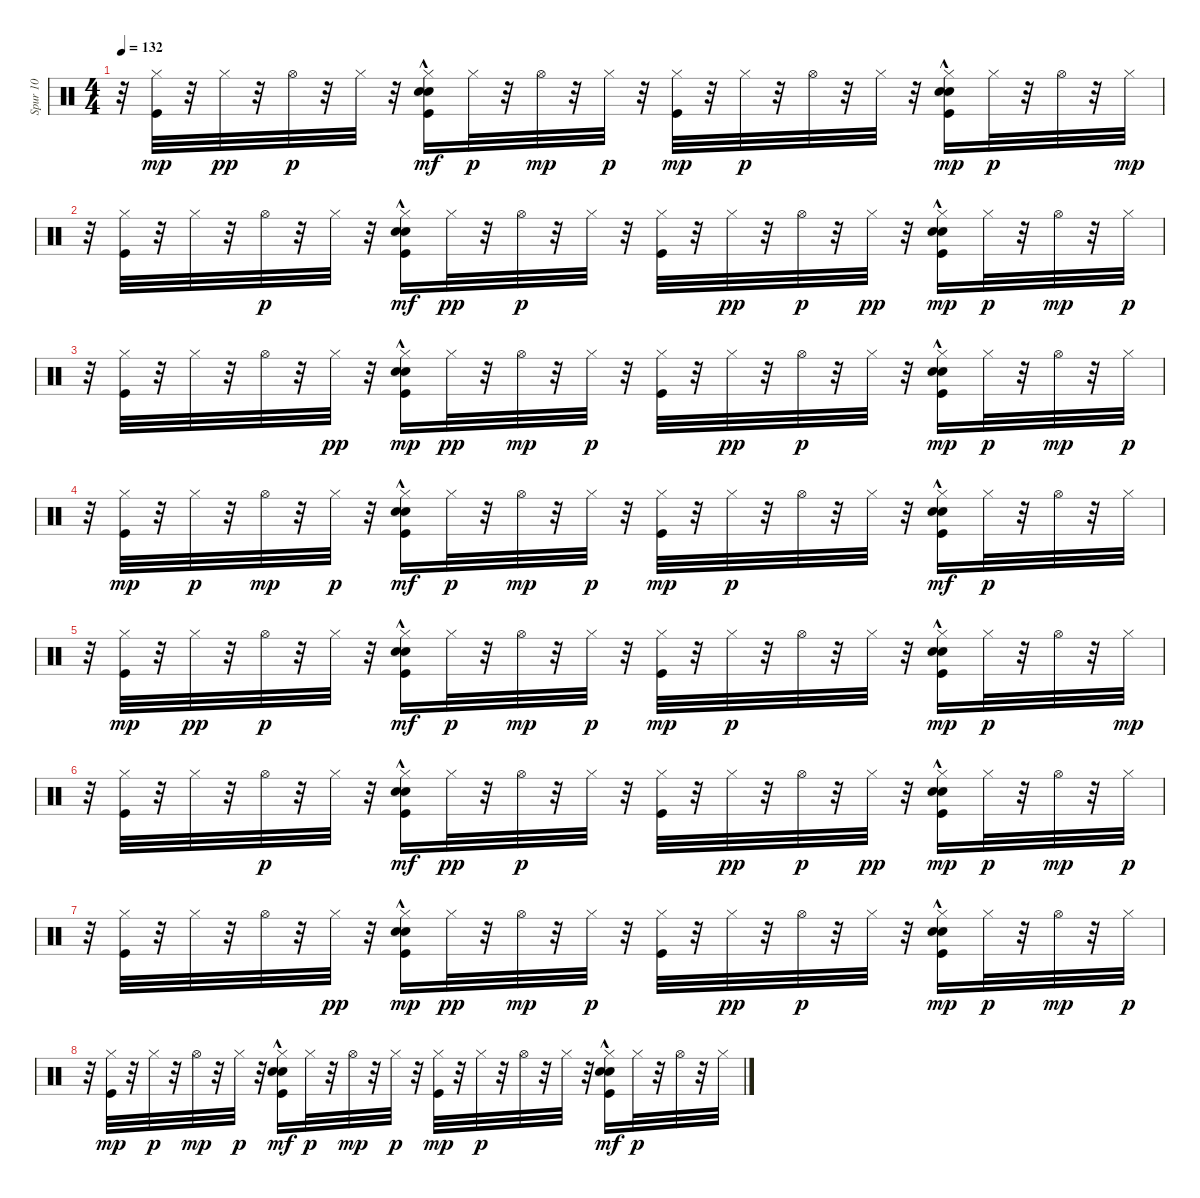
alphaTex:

\track ("Spur 10" "Spur 10") {instrument percussion}
\staff {score}
\articulation defaults
\ts (4 4)
\tempo 132
\clef neutral
\ks c
r.32{dy p} ("Hi-Hat (closed)" "Kick (hit)").32{dy mp} r.32 "Hi-Hat (closed)".32{dy pp} r.32 "Hi-Hat (open)".32{dy p} r.32 "Hi-Hat (closed)".32 r.32 ("Hi-Hat (closed)" "Snare (hit) 2" "Kick (hit)" "Hand Clap (hit)"{hac}).16{dy mf} "Hi-Hat (closed)".32{dy p} r.32 "Hi-Hat (open)".32{dy mp} r.32 "Hi-Hat (closed)".32{dy p} r.32 ("Hi-Hat (closed)" "Kick (hit)").32{dy mp} r.32 "Hi-Hat (closed)".32{dy p} r.32 "Hi-Hat (open)".32 r.32 "Hi-Hat (closed)".32 r.32 ("Hi-Hat (closed)" "Kick (hit)" "Snare (hit) 2" "Hand Clap (hit)"{hac}).16{dy mp} "Hi-Hat (closed)".32{dy p} r.32 "Hi-Hat (open)".32 r.32 "Hi-Hat (closed)".32{dy mp} |
r.32 ("Kick (hit)" "Hi-Hat (closed)").32 r.32 "Hi-Hat (closed)".32 r.32 "Hi-Hat (open)".32{dy p} r.32 "Hi-Hat (closed)".32 r.32 ("Hi-Hat (closed)" "Snare (hit) 2" "Kick (hit)" "Hand Clap (hit)"{hac}).16{dy mf} "Hi-Hat (closed)".32{dy pp} r.32 "Hi-Hat (open)".32{dy p} r.32 "Hi-Hat (closed)".32 r.32 ("Hi-Hat (closed)" "Kick (hit)").32 r.32 "Hi-Hat (closed)".32{dy pp} r.32 "Hi-Hat (open)".32{dy p} r.32 "Hi-Hat (closed)".32{dy pp} r.32 ("Hi-Hat (closed)" "Kick (hit)" "Snare (hit) 2" "Hand Clap (hit)"{hac}).16{dy mp} "Hi-Hat (closed)".32{dy p} r.32 "Hi-Hat (open)".32{dy mp} r.32 "Hi-Hat (closed)".32{dy p} |
r.32 ("Hi-Hat (closed)" "Kick (hit)").32 r.32 "Hi-Hat (closed)".32 r.32 "Hi-Hat (open)".32 r.32 "Hi-Hat (closed)".32{dy pp} r.32 ("Hi-Hat (closed)" "Kick (hit)" "Snare (hit) 2" "Hand Clap (hit)"{hac}).16{dy mp} "Hi-Hat (closed)".32{dy pp} r.32 "Hi-Hat (open)".32{dy mp} r.32 "Hi-Hat (closed)".32{dy p} r.32 ("Hi-Hat (closed)" "Kick (hit)").32 r.32 "Hi-Hat (closed)".32{dy pp} r.32 "Hi-Hat (open)".32{dy p} r.32 "Hi-Hat (closed)".32 r.32 ("Hi-Hat (closed)" "Kick (hit)" "Snare (hit) 2" "Hand Clap (hit)"{hac}).16{dy mp} "Hi-Hat (closed)".32{dy p} r.32 "Hi-Hat (open)".32{dy mp} r.32 "Hi-Hat (closed)".32{dy p} |
r.32 ("Hi-Hat (closed)" "Kick (hit)").32{dy mp} r.32 "Hi-Hat (closed)".32{dy p} r.32 "Hi-Hat (open)".32{dy mp} r.32 "Hi-Hat (closed)".32{dy p} r.32 ("Hi-Hat (closed)" "Snare (hit) 2" "Kick (hit)" "Hand Clap (hit)"{hac}).16{dy mf} "Hi-Hat (closed)".32{dy p} r.32 "Hi-Hat (open)".32{dy mp} r.32 "Hi-Hat (closed)".32{dy p} r.32 ("Hi-Hat (closed)" "Kick (hit)").32{dy mp} r.32 "Hi-Hat (closed)".32{dy p} r.32 "Hi-Hat (open)".32 r.32 "Hi-Hat (closed)".32 r.32 ("Hi-Hat (closed)" "Snare (hit) 2" "Kick (hit)" "Hand Clap (hit)"{hac}).16{dy mf} "Hi-Hat (closed)".32{dy p} r.32 "Hi-Hat (open)".32 r.32 "Hi-Hat (closed)".32 |
r.32 ("Hi-Hat (closed)" "Kick (hit)").32{dy mp} r.32 "Hi-Hat (closed)".32{dy pp} r.32 "Hi-Hat (open)".32{dy p} r.32 "Hi-Hat (closed)".32 r.32 ("Hi-Hat (closed)" "Snare (hit) 2" "Kick (hit)" "Hand Clap (hit)"{hac}).16{dy mf} "Hi-Hat (closed)".32{dy p} r.32 "Hi-Hat (open)".32{dy mp} r.32 "Hi-Hat (closed)".32{dy p} r.32 ("Hi-Hat (closed)" "Kick (hit)").32{dy mp} r.32 "Hi-Hat (closed)".32{dy p} r.32 "Hi-Hat (open)".32 r.32 "Hi-Hat (closed)".32 r.32 ("Hi-Hat (closed)" "Kick (hit)" "Snare (hit) 2" "Hand Clap (hit)"{hac}).16{dy mp} "Hi-Hat (closed)".32{dy p} r.32 "Hi-Hat (open)".32 r.32 "Hi-Hat (closed)".32{dy mp} |
r.32 ("Kick (hit)" "Hi-Hat (closed)").32 r.32 "Hi-Hat (closed)".32 r.32 "Hi-Hat (open)".32{dy p} r.32 "Hi-Hat (closed)".32 r.32 ("Hi-Hat (closed)" "Snare (hit) 2" "Kick (hit)" "Hand Clap (hit)"{hac}).16{dy mf} "Hi-Hat (closed)".32{dy pp} r.32 "Hi-Hat (open)".32{dy p} r.32 "Hi-Hat (closed)".32 r.32 ("Hi-Hat (closed)" "Kick (hit)").32 r.32 "Hi-Hat (closed)".32{dy pp} r.32 "Hi-Hat (open)".32{dy p} r.32 "Hi-Hat (closed)".32{dy pp} r.32 ("Hi-Hat (closed)" "Kick (hit)" "Snare (hit) 2" "Hand Clap (hit)"{hac}).16{dy mp} "Hi-Hat (closed)".32{dy p} r.32 "Hi-Hat (open)".32{dy mp} r.32 "Hi-Hat (closed)".32{dy p} |
r.32 ("Hi-Hat (closed)" "Kick (hit)").32 r.32 "Hi-Hat (closed)".32 r.32 "Hi-Hat (open)".32 r.32 "Hi-Hat (closed)".32{dy pp} r.32 ("Hi-Hat (closed)" "Kick (hit)" "Snare (hit) 2" "Hand Clap (hit)"{hac}).16{dy mp} "Hi-Hat (closed)".32{dy pp} r.32 "Hi-Hat (open)".32{dy mp} r.32 "Hi-Hat (closed)".32{dy p} r.32 ("Hi-Hat (closed)" "Kick (hit)").32 r.32 "Hi-Hat (closed)".32{dy pp} r.32 "Hi-Hat (open)".32{dy p} r.32 "Hi-Hat (closed)".32 r.32 ("Hi-Hat (closed)" "Kick (hit)" "Snare (hit) 2" "Hand Clap (hit)"{hac}).16{dy mp} "Hi-Hat (closed)".32{dy p} r.32 "Hi-Hat (open)".32{dy mp} r.32 "Hi-Hat (closed)".32{dy p} |
r.32 ("Hi-Hat (closed)" "Kick (hit)").32{dy mp} r.32 "Hi-Hat (closed)".32{dy p} r.32 "Hi-Hat (open)".32{dy mp} r.32 "Hi-Hat (closed)".32{dy p} r.32 ("Hi-Hat (closed)" "Snare (hit) 2" "Kick (hit)" "Hand Clap (hit)"{hac}).16{dy mf} "Hi-Hat (closed)".32{dy p} r.32 "Hi-Hat (open)".32{dy mp} r.32 "Hi-Hat (closed)".32{dy p} r.32 ("Hi-Hat (closed)" "Kick (hit)").32{dy mp} r.32 "Hi-Hat (closed)".32{dy p} r.32 "Hi-Hat (open)".32 r.32 "Hi-Hat (closed)".32 r.32 ("Hi-Hat (closed)" "Snare (hit) 2" "Kick (hit)" "Hand Clap (hit)"{hac}).16{dy mf} "Hi-Hat (closed)".32{dy p} r.32 "Hi-Hat (open)".32 r.32 "Hi-Hat (closed)".32
